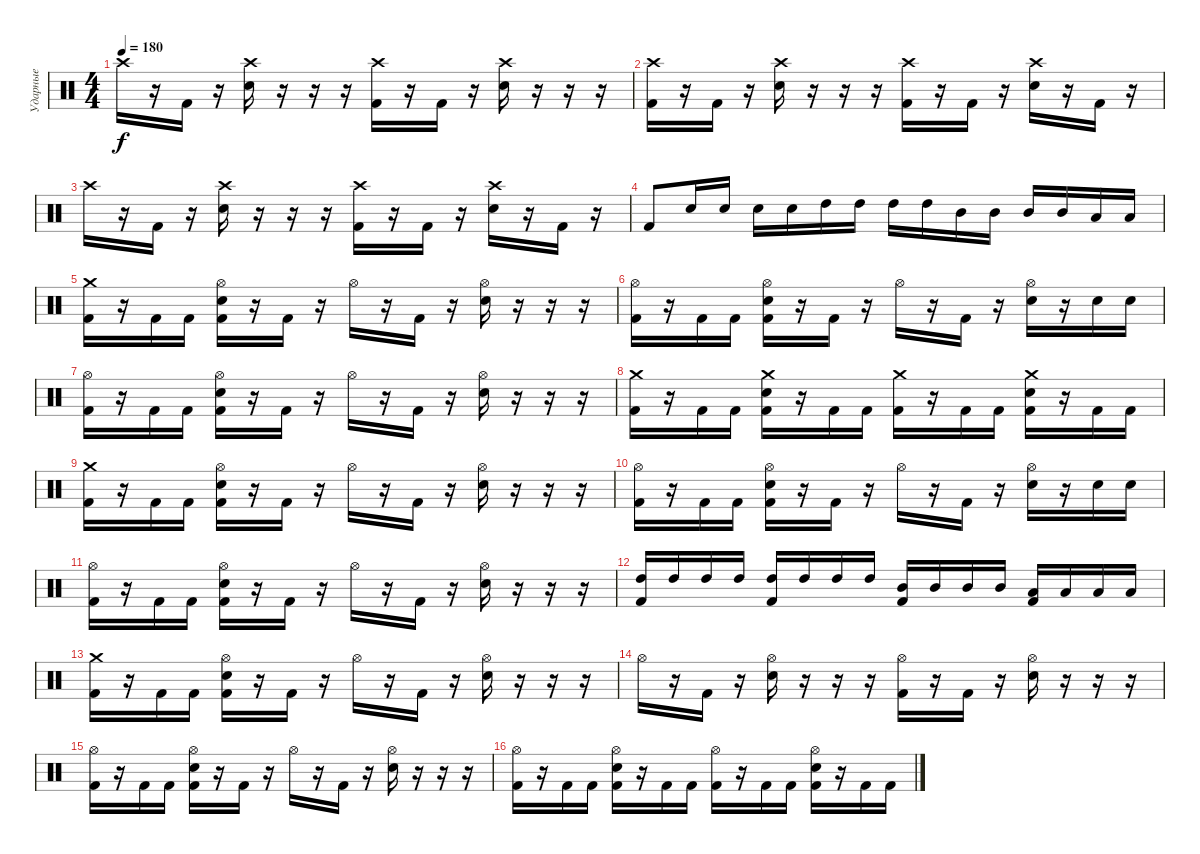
\track ("Ударные" "Ударные") {instrument percussion}
\staff {score}
\articulation defaults
\ts (4 4)
\tempo 180
\clef neutral
\ks c "Crash high (hit)".16{dy f}
r.16 "Kick (hit) 2".16 r.16 ("Crash high (hit)" "Electric Snare (hit)").16 r.16 r.16 r.16 ("Crash high (hit)" "Kick (hit) 2").16 r.16 "Kick (hit) 2".16 r.16 ("Crash high (hit)" "Electric Snare (hit)").16 r.16 r.16 r.16 |
("Crash high (hit)" "Kick (hit) 2").16 r.16 "Kick (hit) 2".16 r.16 ("Crash high (hit)" "Electric Snare (hit)").16 r.16 r.16 r.16 ("Crash high (hit)" "Kick (hit) 2").16 r.16 "Kick (hit) 2".16 r.16 ("Crash high (hit)" "Electric Snare (hit)").16 r.16 "Kick (hit) 2".16 r.16 |
"Crash high (hit)".16 r.16 "Kick (hit) 2".16 r.16 ("Crash high (hit)" "Electric Snare (hit)").16 r.16 r.16 r.16 ("Crash high (hit)" "Kick (hit) 2").16 r.16 "Kick (hit) 2".16 r.16 ("Crash high (hit)" "Electric Snare (hit)").16 r.16 "Kick (hit) 2".16 r.16 |
"Kick (hit) 2".8 "Electric Snare (hit)".16 "Electric Snare (hit)".16 "Electric Snare (hit)".16 "Electric Snare (hit)".16 "High Tom (hit)".16 "High Tom (hit)".16 "High Tom (hit)".16 "High Tom (hit)".16 "Mid Tom (hit)".16 "Mid Tom (hit)".16 "Mid Tom (hit)".16 "Mid Tom (hit)".16 "Low Tom (hit)".16 "Low Tom (hit)".16 |
("Crash medium (hit)" "Kick (hit) 2").16 r.16 "Kick (hit) 2".16 "Kick (hit) 2".16 ("Hi-Hat (open)" "Electric Snare (hit)" "Kick (hit) 2").16 r.16 "Kick (hit) 2".16 r.16 "Hi-Hat (open)".16 r.16 "Kick (hit) 2".16 r.16 ("Hi-Hat (open)" "Electric Snare (hit)").16 r.16 r.16 r.16 |
("Hi-Hat (open)" "Kick (hit) 2").16 r.16 "Kick (hit) 2".16 "Kick (hit) 2".16 ("Hi-Hat (open)" "Electric Snare (hit)" "Kick (hit) 2").16 r.16 "Kick (hit) 2".16 r.16 "Hi-Hat (open)".16 r.16 "Kick (hit) 2".16 r.16 ("Hi-Hat (open)" "Electric Snare (hit)").16 r.16 "Electric Snare (hit)".16 "Electric Snare (hit)".16 |
("Hi-Hat (open)" "Kick (hit) 2").16 r.16 "Kick (hit) 2".16 "Kick (hit) 2".16 ("Hi-Hat (open)" "Electric Snare (hit)" "Kick (hit) 2").16 r.16 "Kick (hit) 2".16 r.16 "Hi-Hat (open)".16 r.16 "Kick (hit) 2".16 r.16 ("Hi-Hat (open)" "Electric Snare (hit)").16 r.16 r.16 r.16 |
("Crash medium (hit)" "Kick (hit) 2").16 r.16 "Kick (hit) 2".16 "Kick (hit) 2".16 ("Crash medium (hit)" "Electric Snare (hit)" "Kick (hit) 2").16 r.16 "Kick (hit) 2".16 "Kick (hit) 2".16 ("Crash medium (hit)" "Kick (hit) 2").16 r.16 "Kick (hit) 2".16 "Kick (hit) 2".16 ("Crash medium (hit)" "Electric Snare (hit)" "Kick (hit) 2").16 r.16 "Kick (hit) 2".16 "Kick (hit) 2".16 |
("Crash medium (hit)" "Kick (hit) 2").16 r.16 "Kick (hit) 2".16 "Kick (hit) 2".16 ("Hi-Hat (open)" "Electric Snare (hit)" "Kick (hit) 2").16 r.16 "Kick (hit) 2".16 r.16 "Hi-Hat (open)".16 r.16 "Kick (hit) 2".16 r.16 ("Hi-Hat (open)" "Electric Snare (hit)").16 r.16 r.16 r.16 |
("Hi-Hat (open)" "Kick (hit) 2").16 r.16 "Kick (hit) 2".16 "Kick (hit) 2".16 ("Hi-Hat (open)" "Electric Snare (hit)" "Kick (hit) 2").16 r.16 "Kick (hit) 2".16 r.16 "Hi-Hat (open)".16 r.16 "Kick (hit) 2".16 r.16 ("Hi-Hat (open)" "Electric Snare (hit)").16 r.16 "Electric Snare (hit)".16 "Electric Snare (hit)".16 |
("Hi-Hat (open)" "Kick (hit) 2").16 r.16 "Kick (hit) 2".16 "Kick (hit) 2".16 ("Hi-Hat (open)" "Electric Snare (hit)" "Kick (hit) 2").16 r.16 "Kick (hit) 2".16 r.16 "Hi-Hat (open)".16 r.16 "Kick (hit) 2".16 r.16 ("Hi-Hat (open)" "Electric Snare (hit)").16 r.16 r.16 r.16 |
("High Tom (hit)" "Kick (hit) 2").16 "High Tom (hit)".16 "High Tom (hit)".16 "High Tom (hit)".16 ("High Tom (hit)" "Kick (hit) 2").16 "High Tom (hit)".16 "High Tom (hit)".16 "High Tom (hit)".16 ("Mid Tom (hit)" "Kick (hit) 2").16 "Mid Tom (hit)".16 "Mid Tom (hit)".16 "Mid Tom (hit)".16 ("Low Tom (hit)" "Kick (hit) 2").16 "Low Tom (hit)".16 "Low Tom (hit)".16 "Low Tom (hit)".16 |
("Crash medium (hit)" "Kick (hit) 2").16 r.16 "Kick (hit) 2".16 "Kick (hit) 2".16 ("Hi-Hat (open)" "Electric Snare (hit)" "Kick (hit) 2").16 r.16 "Kick (hit) 2".16 r.16 "Hi-Hat (open)".16 r.16 "Kick (hit) 2".16 r.16 ("Hi-Hat (open)" "Electric Snare (hit)").16 r.16 r.16 r.16 |
"Hi-Hat (open)".16 r.16 "Kick (hit) 2".16 r.16 ("Hi-Hat (open)" "Electric Snare (hit)").16 r.16 r.16 r.16 ("Hi-Hat (open)" "Kick (hit) 2").16 r.16 "Kick (hit) 2".16 r.16 ("Hi-Hat (open)" "Electric Snare (hit)").16 r.16 r.16 r.16 |
("Hi-Hat (open)" "Kick (hit) 2").16 r.16 "Kick (hit) 2".16 "Kick (hit) 2".16 ("Hi-Hat (open)" "Electric Snare (hit)" "Kick (hit) 2").16 r.16 "Kick (hit) 2".16 r.16 "Hi-Hat (open)".16 r.16 "Kick (hit) 2".16 r.16 ("Hi-Hat (open)" "Electric Snare (hit)").16 r.16 r.16 r.16 |
("Hi-Hat (open)" "Kick (hit) 2").16 r.16 "Kick (hit) 2".16 "Kick (hit) 2".16 ("Hi-Hat (open)" "Electric Snare (hit)" "Kick (hit) 2").16 r.16 "Kick (hit) 2".16 "Kick (hit) 2".16 ("Hi-Hat (open)" "Kick (hit) 2").16 r.16 "Kick (hit) 2".16 "Kick (hit) 2".16 ("Hi-Hat (open)" "Electric Snare (hit)" "Kick (hit) 2").16 r.16 "Kick (hit) 2".16 "Kick (hit) 2".16
